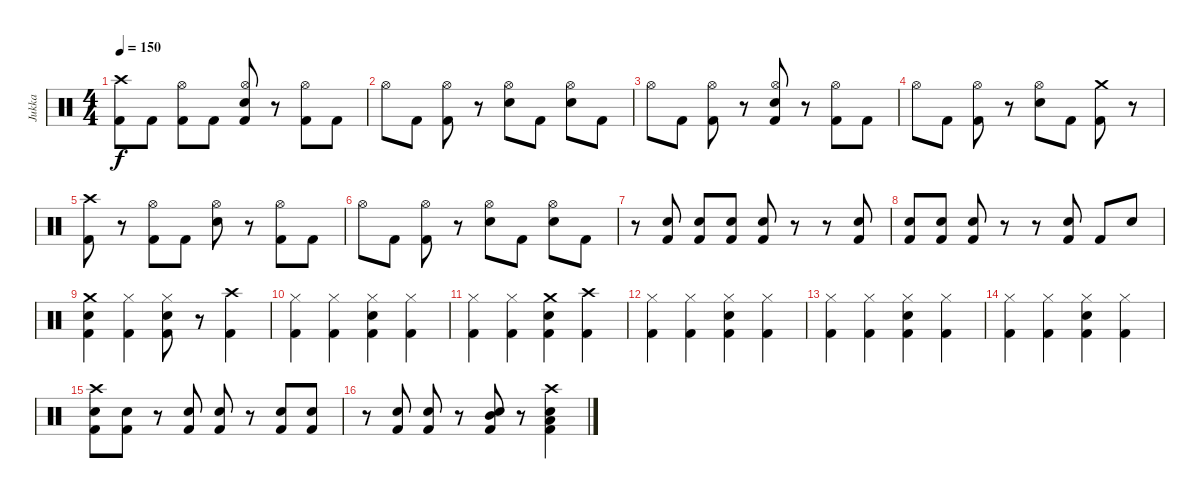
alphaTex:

\track ("Jukka" "Jukka") {instrument percussion}
\staff {score}
\articulation defaults
\ts (4 4)
\tempo 150
\clef neutral
\ks c
("Crash high (hit)" "Kick (hit) 2").8{dy f} "Kick (hit) 2".8 ("Hi-Hat (open)" "Kick (hit) 2").8 "Kick (hit) 2".8 ("Hi-Hat (open)" "Electric Snare (hit)" "Kick (hit) 2").8 r.8 ("Hi-Hat (open)" "Kick (hit) 2").8 "Kick (hit) 2".8 |
"Hi-Hat (open)".8 "Kick (hit) 2".8 ("Hi-Hat (open)" "Kick (hit) 2").8 r.8 ("Hi-Hat (open)" "Electric Snare (hit)").8 "Kick (hit) 2".8 ("Hi-Hat (open)" "Electric Snare (hit)").8 "Kick (hit) 2".8 |
"Hi-Hat (open)".8 "Kick (hit) 2".8 ("Hi-Hat (open)" "Kick (hit) 2").8 r.8 ("Hi-Hat (open)" "Electric Snare (hit)" "Kick (hit) 2").8 r.8 ("Hi-Hat (open)" "Kick (hit) 2").8 "Kick (hit) 2".8 |
"Hi-Hat (open)".8 "Kick (hit) 2".8 ("Hi-Hat (open)" "Kick (hit) 2").8 r.8 ("Hi-Hat (open)" "Electric Snare (hit)").8 "Kick (hit) 2".8 ("Crash medium (hit)" "Kick (hit) 2").8 r.8 |
("Crash high (hit)" "Kick (hit) 2").8 r.8 ("Hi-Hat (open)" "Kick (hit) 2").8 "Kick (hit) 2".8 ("Hi-Hat (open)" "Electric Snare (hit)").8 r.8 ("Hi-Hat (open)" "Kick (hit) 2").8 "Kick (hit) 2".8 |
"Hi-Hat (open)".8 "Kick (hit) 2".8 ("Hi-Hat (open)" "Kick (hit) 2").8 r.8 ("Hi-Hat (open)" "Electric Snare (hit)").8 "Kick (hit) 2".8 ("Hi-Hat (open)" "Electric Snare (hit)").8 "Kick (hit) 2".8 |
r.8 ("Electric Snare (hit)" "Kick (hit) 2").8 ("Electric Snare (hit)" "Kick (hit) 2").8 ("Electric Snare (hit)" "Kick (hit) 2").8 ("Electric Snare (hit)" "Kick (hit) 2").8 r.8 r.8 ("Electric Snare (hit)" "Kick (hit) 2").8 |
("Electric Snare (hit)" "Kick (hit) 2").8 ("Electric Snare (hit)" "Kick (hit) 2").8 ("Electric Snare (hit)" "Kick (hit) 2").8 r.8 r.8 ("Electric Snare (hit)" "Kick (hit) 2").8 "Kick (hit) 2".8 "Electric Snare (hit)".8 |
("Crash medium (hit)" "Electric Snare (hit)" "Kick (hit) 2").4 ("Hi-Hat (closed)" "Kick (hit) 2").4 ("Hi-Hat (closed)" "Electric Snare (hit)" "Kick (hit) 2").8 r.8 ("Crash high (hit)" "Kick (hit) 2").4 |
("Hi-Hat (closed)" "Kick (hit) 2").4 ("Hi-Hat (closed)" "Kick (hit) 2").4 ("Hi-Hat (closed)" "Electric Snare (hit)" "Kick (hit) 2").4 ("Hi-Hat (closed)" "Kick (hit) 2").4 |
("Hi-Hat (closed)" "Kick (hit) 2").4 ("Hi-Hat (closed)" "Kick (hit) 2").4 ("Crash medium (hit)" "Electric Snare (hit)" "Kick (hit) 2").4 ("Crash high (hit)" "Kick (hit) 2").4 |
("Hi-Hat (closed)" "Kick (hit) 2").4 ("Hi-Hat (closed)" "Kick (hit) 2").4 ("Hi-Hat (closed)" "Electric Snare (hit)" "Kick (hit) 2").4 ("Hi-Hat (closed)" "Kick (hit) 2").4 |
("Hi-Hat (closed)" "Kick (hit) 2").4 ("Hi-Hat (closed)" "Kick (hit) 2").4 ("Hi-Hat (closed)" "Electric Snare (hit)" "Kick (hit) 2").4 ("Hi-Hat (closed)" "Kick (hit) 2").4 |
("Hi-Hat (closed)" "Kick (hit) 2").4 ("Hi-Hat (closed)" "Kick (hit) 2").4 ("Hi-Hat (closed)" "Electric Snare (hit)" "Kick (hit) 2").4 ("Hi-Hat (closed)" "Kick (hit) 2").4 |
("Crash high (hit)" "Electric Snare (hit)" "Kick (hit) 2").8 ("Electric Snare (hit)" "Kick (hit) 2").8 r.8 ("Electric Snare (hit)" "Kick (hit) 2").8 ("Electric Snare (hit)" "Kick (hit) 2").8 r.8 ("Electric Snare (hit)" "Kick (hit) 2").8 ("Electric Snare (hit)" "Kick (hit) 2").8 |
r.8 ("Electric Snare (hit)" "Kick (hit) 2").8 ("Electric Snare (hit)" "Kick (hit) 2").8 r.8 ("Electric Snare (hit)" "Mid Tom (hit)" "Kick (hit) 2").8 r.8 ("Crash high (hit)" "Electric Snare (hit)" "Low Tom (hit)" "Kick (hit) 2").4
